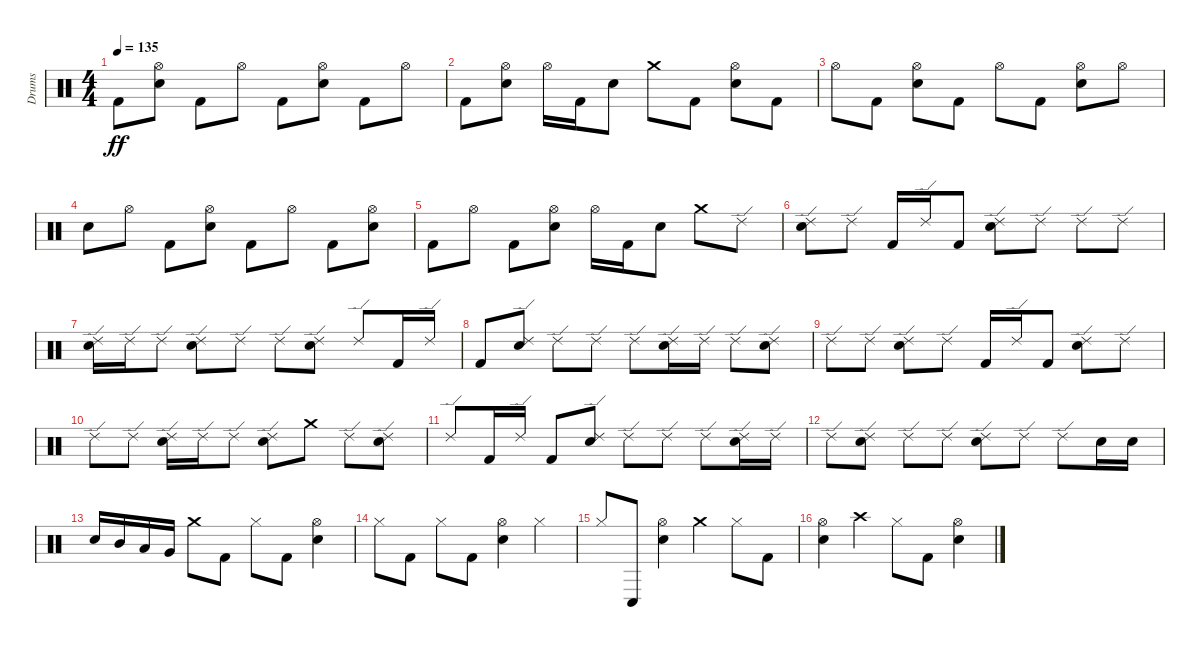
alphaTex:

\track ("Drums" "Drums") {instrument percussion}
\staff {score}
\articulation defaults
\ts (4 4)
\tempo 135
\clef neutral
\ks c "Kick (hit) 2".8{dy ff}
("Electric Snare (hit)" "Hi-Hat (open)").8 "Kick (hit) 2".8 "Hi-Hat (open)".8 "Kick (hit) 2".8 ("Electric Snare (hit)" "Hi-Hat (open)").8 "Kick (hit) 2".8 "Hi-Hat (open)".8 |
"Kick (hit) 2".8 ("Electric Snare (hit)" "Hi-Hat (open)").8 "Hi-Hat (open)".16 "Kick (hit) 2".16 "Electric Snare (hit)".8 "Crash medium (hit)".8 "Kick (hit) 2".8 ("Electric Snare (hit)" "Hi-Hat (open)").8 "Kick (hit) 2".8 |
"Hi-Hat (open)".8 "Kick (hit) 2".8 ("Electric Snare (hit)" "Hi-Hat (open)").8 "Kick (hit) 2".8 "Hi-Hat (open)".8 "Kick (hit) 2".8 ("Electric Snare (hit)" "Hi-Hat (open)").8 "Hi-Hat (open)".8 |
"Electric Snare (hit)".8 "Hi-Hat (open)".8 "Kick (hit) 2".8 ("Electric Snare (hit)" "Hi-Hat (open)").8 "Kick (hit) 2".8 "Hi-Hat (open)".8 "Kick (hit) 2".8 ("Electric Snare (hit)" "Hi-Hat (open)").8 |
"Kick (hit) 2".8 "Hi-Hat (open)".8 "Kick (hit) 2".8 ("Electric Snare (hit)" "Hi-Hat (open)").8 "Hi-Hat (open)".16 "Kick (hit) 2".16 "Electric Snare (hit)".8 "Crash medium (hit)".8 "Ride (edge) 2".8 |
("Electric Snare (hit)" "Ride (edge) 2").8 "Ride (edge) 2".8 "Kick (hit) 2".16 "Ride (edge) 2".16 "Kick (hit) 2".8 ("Electric Snare (hit)" "Ride (edge) 2").8 "Ride (edge) 2".8 "Ride (edge) 2".8 "Ride (edge) 2".8 |
("Electric Snare (hit)" "Ride (edge) 2").16 "Ride (edge) 2".16 "Ride (edge) 2".8 ("Electric Snare (hit)" "Ride (edge) 2").8 "Ride (edge) 2".8 "Ride (edge) 2".8 ("Electric Snare (hit)" "Ride (edge) 2").8 "Ride (edge) 2".8 "Kick (hit) 2".16 "Ride (edge) 2".16 |
"Kick (hit) 2".8 ("Electric Snare (hit)" "Ride (edge) 2").8 "Ride (edge) 2".8 "Ride (edge) 2".8 "Ride (edge) 2".8 ("Electric Snare (hit)" "Ride (edge) 2").16 "Ride (edge) 2".16 "Ride (edge) 2".8 ("Electric Snare (hit)" "Ride (edge) 2").8 |
"Ride (edge) 2".8 "Ride (edge) 2".8 ("Electric Snare (hit)" "Ride (edge) 2").8 "Ride (edge) 2".8 "Kick (hit) 2".16 "Ride (edge) 2".16 "Kick (hit) 2".8 ("Electric Snare (hit)" "Ride (edge) 2").8 "Ride (edge) 2".8 |
"Ride (edge) 2".8 "Ride (edge) 2".8 ("Electric Snare (hit)" "Ride (edge) 2").16 "Ride (edge) 2".16 "Ride (edge) 2".8 ("Electric Snare (hit)" "Ride (edge) 2").8 "Crash medium (hit)".8 "Ride (edge) 2".8 ("Electric Snare (hit)" "Ride (edge) 2").8 |
"Ride (edge) 2".8 "Kick (hit) 2".16 "Ride (edge) 2".16 "Kick (hit) 2".8 ("Electric Snare (hit)" "Ride (edge) 2").8 "Ride (edge) 2".8 "Ride (edge) 2".8 "Ride (edge) 2".8 ("Electric Snare (hit)" "Ride (edge) 2").16 "Ride (edge) 2".16 |
"Ride (edge) 2".8 ("Electric Snare (hit)" "Ride (edge) 2").8 "Ride (edge) 2".8 "Ride (edge) 2".8 ("Electric Snare (hit)" "Ride (edge) 2").8 "Ride (edge) 2".8 "Ride (edge) 2".8 "Electric Snare (hit)".16 "Electric Snare (hit)".16 |
"Electric Snare (hit)".16 "Mid Tom (hit)".16 "Low Tom (hit)".16 "Very Low Tom (hit)".16 "Crash medium (hit)".8 "Kick (hit) 2".8 "Hi-Hat (closed)".8 "Kick (hit) 2".8 ("Electric Snare (hit)" "Hi-Hat (open)").4 |
"Hi-Hat (closed)".8 "Kick (hit) 2".8 "Hi-Hat (closed)".8 "Kick (hit) 2".8 ("Electric Snare (hit)" "Hi-Hat (open)").4 "Hi-Hat (closed)".4 |
"Hi-Hat (closed)".8 "Conga low (hit)".8 ("Electric Snare (hit)" "Hi-Hat (open)").4 "Crash medium (hit)".4 "Hi-Hat (closed)".8 "Kick (hit) 2".8 |
("Electric Snare (hit)" "Hi-Hat (open)").4 "Crash high (hit)".4 "Hi-Hat (closed)".8 "Kick (hit) 2".8 ("Electric Snare (hit)" "Hi-Hat (open)").4
